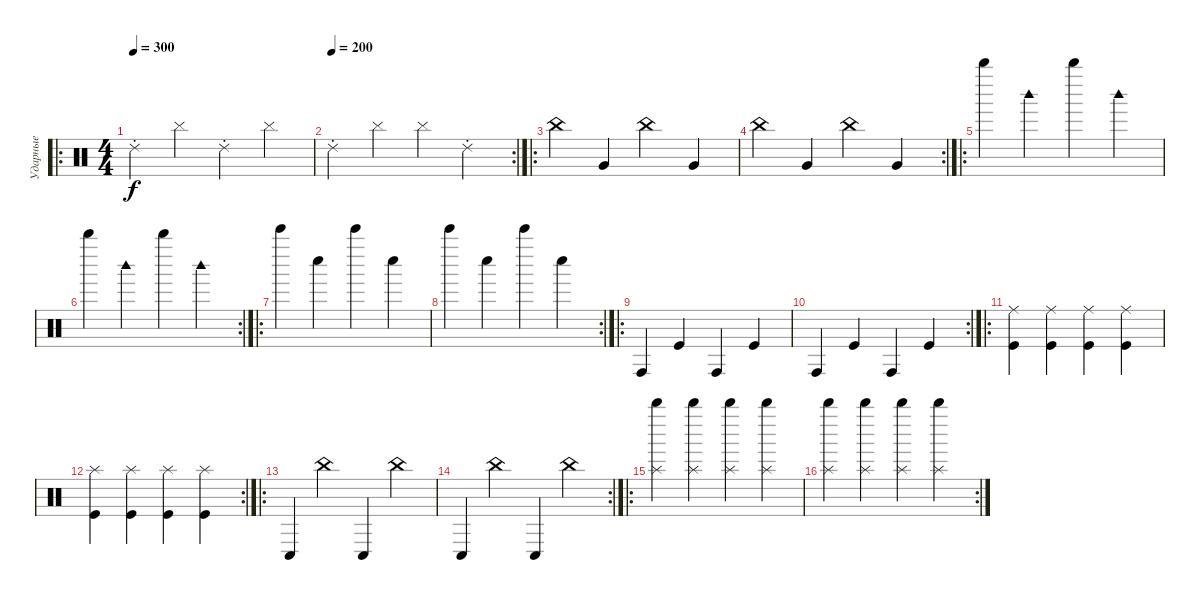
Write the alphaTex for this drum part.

\track ("Ударные" "Ударные") {instrument percussion}
\staff {score}
\articulation defaults
\ro
\ts (4 4)
\tempo 300
\clef neutral
\ks c "Ride (choke) 2".4{dy f} "Cymbal (hit)".4 "Ride (choke) 2".4 "Cymbal (hit)".4
|
\rc 2
\tempo (200)
"Ride (choke) 2".4 "Cymbal (hit)".4 "Cymbal (hit)".4 "Ride (choke) 2".4 |
\ro "China (hit)".4 "Very Low Tom (hit)".4 "China (hit)".4 "Very Low Tom (hit)".4
|
\rc 2 "China (hit)".4 "Very Low Tom (hit)".4 "China (hit)".4 "Very Low Tom (hit)".4
|
\ro "Whistle high (hit)".4 "Woodblock high (hit)".4 "Whistle high (hit)".4 "Woodblock high (hit)".4
|
\rc 2 "Whistle high (hit)".4 "Woodblock high (hit)".4 "Whistle high (hit)".4 "Woodblock high (hit)".4
|
\ro "Bell Tree (hit)".4 "Whistle low (hit)".4 "Bell Tree (hit)".4 "Whistle low (hit)".4
|
\rc 2 "Bell Tree (hit)".4 "Whistle low (hit)".4 "Bell Tree (hit)".4 "Whistle low (hit)".4
|
\ro "Conga high (hit)".4 "Kick (hit)".4 "Conga high (hit)".4 "Kick (hit)".4
|
\rc 2 "Conga high (hit)".4 "Kick (hit)".4 "Conga high (hit)".4 "Kick (hit)".4
|
\ro
("Kick (hit)" "Ride (middle)").4 ("Kick (hit)" "Ride (middle)").4 ("Kick (hit)" "Ride (middle)").4 ("Kick (hit)" "Ride (middle)").4 |
\rc 2
("Kick (hit)" "Splash (hit)").4 ("Kick (hit)" "Splash (hit)").4 ("Kick (hit)" "Splash (hit)").4 ("Kick (hit)" "Splash (hit)").4 |
\ro "Conga low (hit)".4 "China (hit)".4 "Conga low (hit)".4 "China (hit)".4
|
\rc 2 "Conga low (hit)".4 "China (hit)".4 "Conga low (hit)".4 "China (hit)".4
|
\ro
("Splash (hit)" "Whistle high (hit)").4 ("Splash (hit)" "Whistle high (hit)").4 ("Splash (hit)" "Whistle high (hit)").4 ("Splash (hit)" "Whistle high (hit)").4 |
\rc 2
("Splash (hit)" "Whistle high (hit)").4 ("Splash (hit)" "Whistle high (hit)").4 ("Splash (hit)" "Whistle high (hit)").4 ("Splash (hit)" "Whistle high (hit)").4
